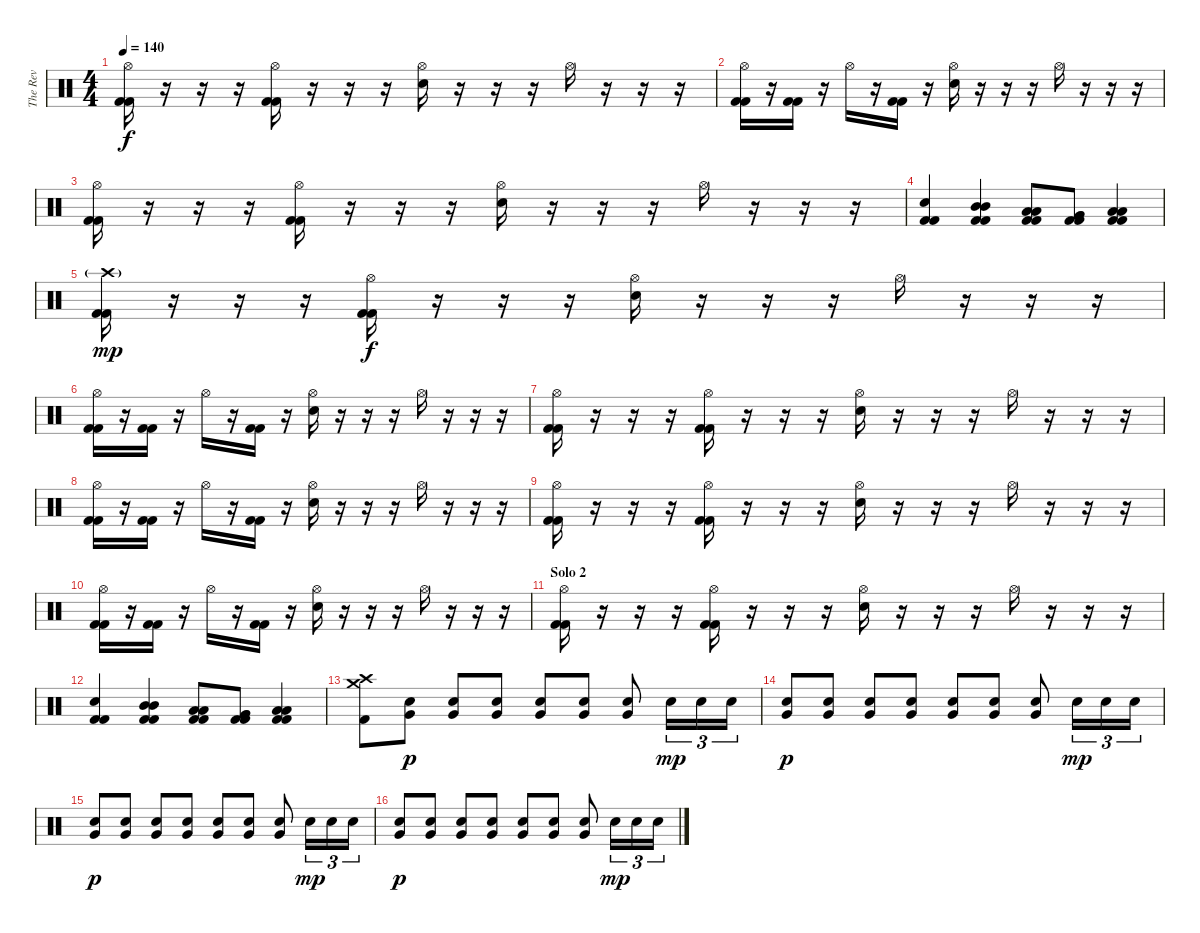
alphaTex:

\track ("The Rev" "The Rev") {instrument percussion}
\staff {score}
\articulation defaults
\ts (4 4)
\tempo 140
\clef neutral
\ks c
("Hi-Hat (open)" "Kick (hit) 2" "Kick (hit) 2").16{dy f} r.16 r.16 r.16 ("Hi-Hat (open)" "Kick (hit) 2" "Kick (hit) 2").16 r.16 r.16 r.16 ("Hi-Hat (open)" "Electric Snare (hit)").16 r.16 r.16 r.16 "Hi-Hat (open)".16 r.16 r.16 r.16 |
("Hi-Hat (open)" "Kick (hit) 2" "Kick (hit) 2").16 r.16 ("Kick (hit) 2" "Kick (hit) 2").16 r.16 "Hi-Hat (open)".16 r.16 ("Kick (hit) 2" "Kick (hit) 2").16 r.16 ("Hi-Hat (open)" "Electric Snare (hit)").16 r.16 r.16 r.16 "Hi-Hat (open)".16 r.16 r.16 r.16 |
("Hi-Hat (open)" "Kick (hit) 2" "Kick (hit) 2").16 r.16 r.16 r.16 ("Hi-Hat (open)" "Kick (hit) 2" "Kick (hit) 2").16 r.16 r.16 r.16 ("Hi-Hat (open)" "Electric Snare (hit)").16 r.16 r.16 r.16 "Hi-Hat (open)".16 r.16 r.16 r.16 |
("Electric Snare (hit)" "Kick (hit) 2" "Kick (hit) 2").4 ("Mid Tom (hit)" "Mid Tom (hit)" "Kick (hit) 2" "Kick (hit) 2").4 ("Low Tom (hit)" "Low Tom (hit)" "Kick (hit) 2" "Kick (hit) 2").8 ("Very Low Tom (hit)" "Very Low Tom (hit)" "Kick (hit) 2" "Kick (hit) 2").8 ("Low Floor Tom (hit)" "Low Floor Tom (hit)" "Kick (hit) 2" "Kick (hit) 2").4 |
("Crash high (hit)"{g} "Kick (hit) 2" "Kick (hit) 2").16{dy mp} r.16 r.16 r.16 ("Hi-Hat (open)" "Kick (hit) 2" "Kick (hit) 2").16{dy f} r.16 r.16 r.16 ("Hi-Hat (open)" "Electric Snare (hit)").16 r.16 r.16 r.16 "Hi-Hat (open)".16 r.16 r.16 r.16 |
("Hi-Hat (open)" "Kick (hit) 2" "Kick (hit) 2").16 r.16 ("Kick (hit) 2" "Kick (hit) 2").16 r.16 "Hi-Hat (open)".16 r.16 ("Kick (hit) 2" "Kick (hit) 2").16 r.16 ("Hi-Hat (open)" "Electric Snare (hit)").16 r.16 r.16 r.16 "Hi-Hat (open)".16 r.16 r.16 r.16 |
("Hi-Hat (open)" "Kick (hit) 2" "Kick (hit) 2").16 r.16 r.16 r.16 ("Hi-Hat (open)" "Kick (hit) 2" "Kick (hit) 2").16 r.16 r.16 r.16 ("Hi-Hat (open)" "Electric Snare (hit)").16 r.16 r.16 r.16 "Hi-Hat (open)".16 r.16 r.16 r.16 |
("Hi-Hat (open)" "Kick (hit) 2" "Kick (hit) 2").16 r.16 ("Kick (hit) 2" "Kick (hit) 2").16 r.16 "Hi-Hat (open)".16 r.16 ("Kick (hit) 2" "Kick (hit) 2").16 r.16 ("Hi-Hat (open)" "Electric Snare (hit)").16 r.16 r.16 r.16 "Hi-Hat (open)".16 r.16 r.16 r.16 |
("Hi-Hat (open)" "Kick (hit) 2" "Kick (hit) 2").16 r.16 r.16 r.16 ("Hi-Hat (open)" "Kick (hit) 2" "Kick (hit) 2").16 r.16 r.16 r.16 ("Hi-Hat (open)" "Electric Snare (hit)").16 r.16 r.16 r.16 "Hi-Hat (open)".16 r.16 r.16 r.16 |
("Hi-Hat (open)" "Kick (hit) 2" "Kick (hit) 2").16 r.16 ("Kick (hit) 2" "Kick (hit) 2").16 r.16 "Hi-Hat (open)".16 r.16 ("Kick (hit) 2" "Kick (hit) 2").16 r.16 ("Hi-Hat (open)" "Electric Snare (hit)").16 r.16 r.16 r.16 "Hi-Hat (open)".16 r.16 r.16 r.16 |
\section ("" "Solo 2")
("Hi-Hat (open)" "Kick (hit) 2" "Kick (hit) 2").16 r.16 r.16 r.16 ("Hi-Hat (open)" "Kick (hit) 2" "Kick (hit) 2").16 r.16 r.16 r.16 ("Hi-Hat (open)" "Electric Snare (hit)").16 r.16 r.16 r.16 "Hi-Hat (open)".16 r.16 r.16 r.16 |
("Electric Snare (hit)" "Kick (hit) 2" "Kick (hit) 2").4 ("Mid Tom (hit)" "Mid Tom (hit)" "Kick (hit) 2" "Kick (hit) 2").4 ("Low Tom (hit)" "Low Tom (hit)" "Kick (hit) 2" "Kick (hit) 2").8 ("Very Low Tom (hit)" "Very Low Tom (hit)" "Kick (hit) 2" "Kick (hit) 2").8 ("Low Floor Tom (hit)" "Low Floor Tom (hit)" "Kick (hit) 2" "Kick (hit) 2").4 |
("Crash medium (hit)" "Crash high (hit)" "Kick (hit) 2").8 ("Very Low Tom (hit)" "Electric Snare (hit)").8{dy p} ("Very Low Tom (hit)" "Electric Snare (hit)").8 ("Very Low Tom (hit)" "Electric Snare (hit)").8 ("Very Low Tom (hit)" "Electric Snare (hit)").8 ("Very Low Tom (hit)" "Electric Snare (hit)").8 ("Very Low Tom (hit)" "Electric Snare (hit)").8 "Electric Snare (hit)".16{tu (3 2) dy mp} "Electric Snare (hit)".16{tu (3 2)} "Electric Snare (hit)".16{tu (3 2)} |
("Very Low Tom (hit)" "Electric Snare (hit)").8{dy p} ("Very Low Tom (hit)" "Electric Snare (hit)").8 ("Very Low Tom (hit)" "Electric Snare (hit)").8 ("Very Low Tom (hit)" "Electric Snare (hit)").8 ("Very Low Tom (hit)" "Electric Snare (hit)").8 ("Very Low Tom (hit)" "Electric Snare (hit)").8 ("Very Low Tom (hit)" "Electric Snare (hit)").8 "Electric Snare (hit)".16{tu (3 2) dy mp} "Electric Snare (hit)".16{tu (3 2)} "Electric Snare (hit)".16{tu (3 2)} |
("Very Low Tom (hit)" "Electric Snare (hit)").8{dy p} ("Very Low Tom (hit)" "Electric Snare (hit)").8 ("Very Low Tom (hit)" "Electric Snare (hit)").8 ("Very Low Tom (hit)" "Electric Snare (hit)").8 ("Very Low Tom (hit)" "Electric Snare (hit)").8 ("Very Low Tom (hit)" "Electric Snare (hit)").8 ("Very Low Tom (hit)" "Electric Snare (hit)").8 "Electric Snare (hit)".16{tu (3 2) dy mp} "Electric Snare (hit)".16{tu (3 2)} "Electric Snare (hit)".16{tu (3 2)} |
("Very Low Tom (hit)" "Electric Snare (hit)").8{dy p} ("Very Low Tom (hit)" "Electric Snare (hit)").8 ("Very Low Tom (hit)" "Electric Snare (hit)").8 ("Very Low Tom (hit)" "Electric Snare (hit)").8 ("Very Low Tom (hit)" "Electric Snare (hit)").8 ("Very Low Tom (hit)" "Electric Snare (hit)").8 ("Very Low Tom (hit)" "Electric Snare (hit)").8 "Electric Snare (hit)".16{tu (3 2) dy mp} "Electric Snare (hit)".16{tu (3 2)} "Electric Snare (hit)".16{tu (3 2)}
